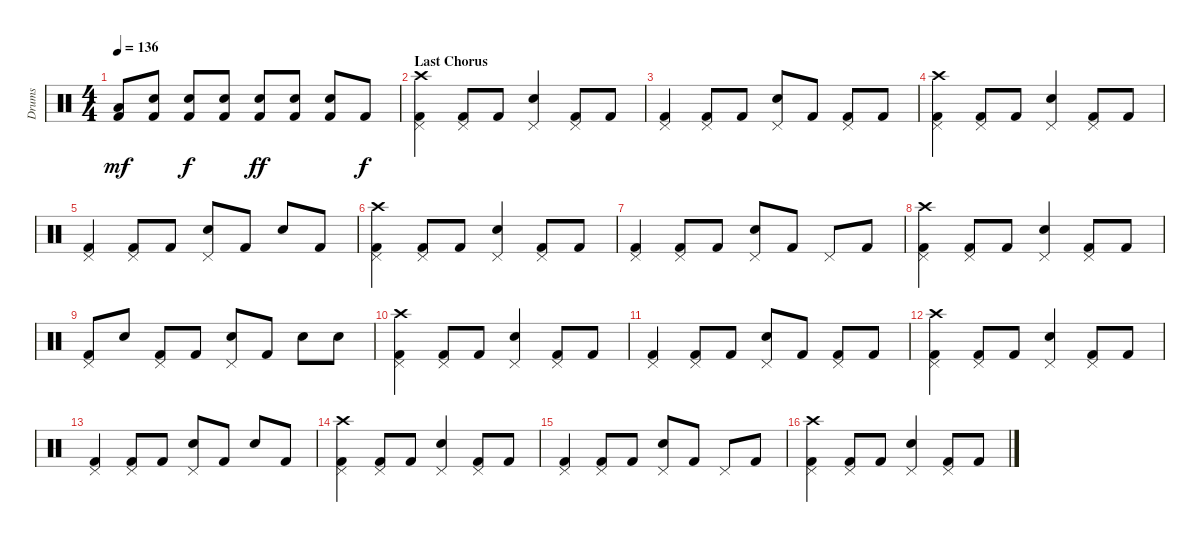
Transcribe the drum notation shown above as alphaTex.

\track ("Drums" "Drums") {instrument percussion}
\staff {score}
\articulation defaults
\ts (4 4)
\tempo 136
\clef neutral
\ks c
("Low Floor Tom (hit)" "Kick (hit) 2").8{dy mf} ("Snare (hit) 2" "Kick (hit) 2").8 ("Snare (hit) 2" "Kick (hit) 2").8{dy f} ("Snare (hit) 2" "Kick (hit) 2").8 ("Snare (hit) 2" "Kick (hit) 2").8{dy ff} ("Snare (hit) 2" "Kick (hit) 2").8 ("Snare (hit) 2" "Kick (hit) 2").8 "Kick (hit) 2".8{dy f} |
\section ("" "Last Chorus")
("Pedal Hi-Hat (hit)" "Crash high (hit)" "Kick (hit) 2").4 ("Pedal Hi-Hat (hit)" "Kick (hit) 2").8 "Kick (hit) 2".8 ("Pedal Hi-Hat (hit)" "Snare (hit) 2").4 ("Pedal Hi-Hat (hit)" "Kick (hit) 2").8 "Kick (hit) 2".8 |
("Pedal Hi-Hat (hit)" "Kick (hit) 2").4 ("Pedal Hi-Hat (hit)" "Kick (hit) 2").8 "Kick (hit) 2".8 ("Pedal Hi-Hat (hit)" "Snare (hit) 2").8 "Kick (hit) 2".8 ("Pedal Hi-Hat (hit)" "Kick (hit) 2").8 "Kick (hit) 2".8 |
("Pedal Hi-Hat (hit)" "Crash high (hit)" "Kick (hit) 2").4 ("Pedal Hi-Hat (hit)" "Kick (hit) 2").8 "Kick (hit) 2".8 ("Pedal Hi-Hat (hit)" "Snare (hit) 2").4 ("Pedal Hi-Hat (hit)" "Kick (hit) 2").8 "Kick (hit) 2".8 |
("Pedal Hi-Hat (hit)" "Kick (hit) 2").4 ("Pedal Hi-Hat (hit)" "Kick (hit) 2").8 "Kick (hit) 2".8 ("Pedal Hi-Hat (hit)" "Snare (hit) 2").8 "Kick (hit) 2".8 "Snare (hit) 2".8 "Kick (hit) 2".8 |
("Pedal Hi-Hat (hit)" "Crash high (hit)" "Kick (hit) 2").4 ("Pedal Hi-Hat (hit)" "Kick (hit) 2").8 "Kick (hit) 2".8 ("Pedal Hi-Hat (hit)" "Snare (hit) 2").4 ("Pedal Hi-Hat (hit)" "Kick (hit) 2").8 "Kick (hit) 2".8 |
("Pedal Hi-Hat (hit)" "Kick (hit) 2").4 ("Pedal Hi-Hat (hit)" "Kick (hit) 2").8 "Kick (hit) 2".8 ("Pedal Hi-Hat (hit)" "Snare (hit) 2").8 "Kick (hit) 2".8 "Pedal Hi-Hat (hit)".8 "Kick (hit) 2".8 |
("Pedal Hi-Hat (hit)" "Crash high (hit)" "Kick (hit) 2").4 ("Pedal Hi-Hat (hit)" "Kick (hit) 2").8 "Kick (hit) 2".8 ("Pedal Hi-Hat (hit)" "Snare (hit) 2").4 ("Pedal Hi-Hat (hit)" "Kick (hit) 2").8 "Kick (hit) 2".8 |
("Pedal Hi-Hat (hit)" "Kick (hit) 2").8 "Snare (hit) 2".8 ("Pedal Hi-Hat (hit)" "Kick (hit) 2").8 "Kick (hit) 2".8 ("Pedal Hi-Hat (hit)" "Snare (hit) 2").8 "Kick (hit) 2".8 "Snare (hit) 2".8 "Snare (hit) 2".8 |
("Pedal Hi-Hat (hit)" "Crash high (hit)" "Kick (hit) 2").4 ("Pedal Hi-Hat (hit)" "Kick (hit) 2").8 "Kick (hit) 2".8 ("Pedal Hi-Hat (hit)" "Snare (hit) 2").4 ("Pedal Hi-Hat (hit)" "Kick (hit) 2").8 "Kick (hit) 2".8 |
("Pedal Hi-Hat (hit)" "Kick (hit) 2").4 ("Pedal Hi-Hat (hit)" "Kick (hit) 2").8 "Kick (hit) 2".8 ("Pedal Hi-Hat (hit)" "Snare (hit) 2").8 "Kick (hit) 2".8 ("Pedal Hi-Hat (hit)" "Kick (hit) 2").8 "Kick (hit) 2".8 |
("Pedal Hi-Hat (hit)" "Crash high (hit)" "Kick (hit) 2").4 ("Pedal Hi-Hat (hit)" "Kick (hit) 2").8 "Kick (hit) 2".8 ("Pedal Hi-Hat (hit)" "Snare (hit) 2").4 ("Pedal Hi-Hat (hit)" "Kick (hit) 2").8 "Kick (hit) 2".8 |
("Pedal Hi-Hat (hit)" "Kick (hit) 2").4 ("Pedal Hi-Hat (hit)" "Kick (hit) 2").8 "Kick (hit) 2".8 ("Pedal Hi-Hat (hit)" "Snare (hit) 2").8 "Kick (hit) 2".8 "Snare (hit) 2".8 "Kick (hit) 2".8 |
("Pedal Hi-Hat (hit)" "Crash high (hit)" "Kick (hit) 2").4 ("Pedal Hi-Hat (hit)" "Kick (hit) 2").8 "Kick (hit) 2".8 ("Pedal Hi-Hat (hit)" "Snare (hit) 2").4 ("Pedal Hi-Hat (hit)" "Kick (hit) 2").8 "Kick (hit) 2".8 |
("Pedal Hi-Hat (hit)" "Kick (hit) 2").4 ("Pedal Hi-Hat (hit)" "Kick (hit) 2").8 "Kick (hit) 2".8 ("Pedal Hi-Hat (hit)" "Snare (hit) 2").8 "Kick (hit) 2".8 "Pedal Hi-Hat (hit)".8 "Kick (hit) 2".8 |
("Pedal Hi-Hat (hit)" "Crash high (hit)" "Kick (hit) 2").4 ("Pedal Hi-Hat (hit)" "Kick (hit) 2").8 "Kick (hit) 2".8 ("Pedal Hi-Hat (hit)" "Snare (hit) 2").4 ("Pedal Hi-Hat (hit)" "Kick (hit) 2").8 "Kick (hit) 2".8
